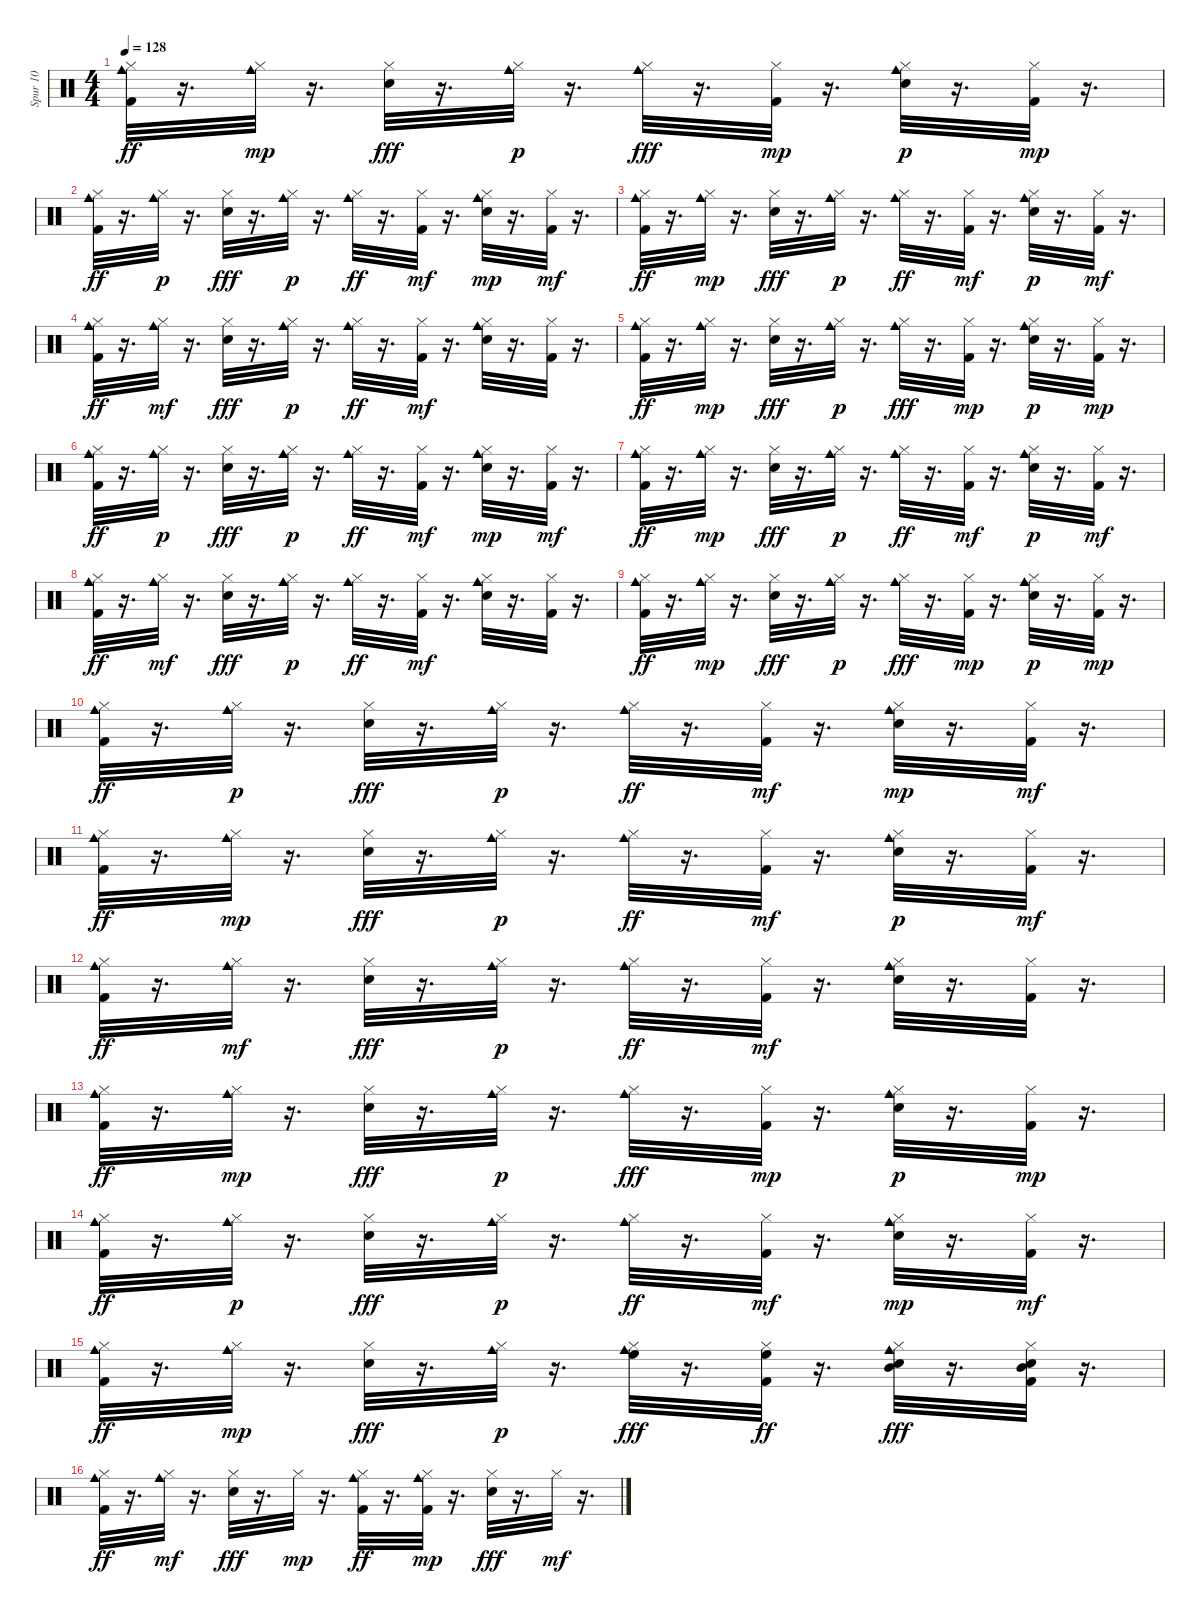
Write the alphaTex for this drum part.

\track ("Spur 10" "Spur 10") {instrument percussion}
\staff {score}
\articulation defaults
\ts (4 4)
\tempo 128
\clef neutral
\ks c
("Kick (hit) 2" "Hi-Hat (closed)" "Cowbell medium (hit)").32{dy ff} r.16{d} ("Hi-Hat (closed)" "Cowbell medium (hit)").32{dy mp} r.16{d} ("Electric Snare (hit)" "Hi-Hat (closed)").32{dy fff} r.16{d} ("Hi-Hat (closed)" "Cowbell medium (hit)").32{dy p} r.16{d} ("Hi-Hat (closed)" "Cowbell medium (hit)").32{dy fff} r.16{d} ("Kick (hit) 2" "Hi-Hat (closed)").32{dy mp} r.16{d} ("Electric Snare (hit)" "Hi-Hat (closed)" "Cowbell medium (hit)").32{dy p} r.16{d} ("Kick (hit) 2" "Hi-Hat (closed)").32{dy mp} r.16{d} |
("Kick (hit) 2" "Hi-Hat (closed)" "Cowbell medium (hit)").32{dy ff} r.16{d} ("Hi-Hat (closed)" "Cowbell medium (hit)").32{dy p} r.16{d} ("Electric Snare (hit)" "Hi-Hat (closed)").32{dy fff} r.16{d} ("Hi-Hat (closed)" "Cowbell medium (hit)").32{dy p} r.16{d} ("Hi-Hat (closed)" "Cowbell medium (hit)").32{dy ff} r.16{d} ("Kick (hit) 2" "Hi-Hat (closed)").32{dy mf} r.16{d} ("Electric Snare (hit)" "Hi-Hat (closed)" "Cowbell medium (hit)").32{dy mp} r.16{d} ("Kick (hit) 2" "Hi-Hat (closed)").32{dy mf} r.16{d} |
("Kick (hit) 2" "Hi-Hat (closed)" "Cowbell medium (hit)").32{dy ff} r.16{d} ("Hi-Hat (closed)" "Cowbell medium (hit)").32{dy mp} r.16{d} ("Electric Snare (hit)" "Hi-Hat (closed)").32{dy fff} r.16{d} ("Hi-Hat (closed)" "Cowbell medium (hit)").32{dy p} r.16{d} ("Hi-Hat (closed)" "Cowbell medium (hit)").32{dy ff} r.16{d} ("Kick (hit) 2" "Hi-Hat (closed)").32{dy mf} r.16{d} ("Electric Snare (hit)" "Hi-Hat (closed)" "Cowbell medium (hit)").32{dy p} r.16{d} ("Kick (hit) 2" "Hi-Hat (closed)").32{dy mf} r.16{d} |
("Kick (hit) 2" "Hi-Hat (closed)" "Cowbell medium (hit)").32{dy ff} r.16{d} ("Hi-Hat (closed)" "Cowbell medium (hit)").32{dy mf} r.16{d} ("Electric Snare (hit)" "Hi-Hat (closed)").32{dy fff} r.16{d} ("Hi-Hat (closed)" "Cowbell medium (hit)").32{dy p} r.16{d} ("Hi-Hat (closed)" "Cowbell medium (hit)").32{dy ff} r.16{d} ("Kick (hit) 2" "Hi-Hat (closed)").32{dy mf} r.16{d} ("Electric Snare (hit)" "Hi-Hat (closed)" "Cowbell medium (hit)").32 r.16{d} ("Kick (hit) 2" "Hi-Hat (closed)").32 r.16{d} |
("Kick (hit) 2" "Hi-Hat (closed)" "Cowbell medium (hit)").32{dy ff} r.16{d} ("Hi-Hat (closed)" "Cowbell medium (hit)").32{dy mp} r.16{d} ("Electric Snare (hit)" "Hi-Hat (closed)").32{dy fff} r.16{d} ("Hi-Hat (closed)" "Cowbell medium (hit)").32{dy p} r.16{d} ("Hi-Hat (closed)" "Cowbell medium (hit)").32{dy fff} r.16{d} ("Kick (hit) 2" "Hi-Hat (closed)").32{dy mp} r.16{d} ("Electric Snare (hit)" "Hi-Hat (closed)" "Cowbell medium (hit)").32{dy p} r.16{d} ("Kick (hit) 2" "Hi-Hat (closed)").32{dy mp} r.16{d} |
("Kick (hit) 2" "Hi-Hat (closed)" "Cowbell medium (hit)").32{dy ff} r.16{d} ("Hi-Hat (closed)" "Cowbell medium (hit)").32{dy p} r.16{d} ("Electric Snare (hit)" "Hi-Hat (closed)").32{dy fff} r.16{d} ("Hi-Hat (closed)" "Cowbell medium (hit)").32{dy p} r.16{d} ("Hi-Hat (closed)" "Cowbell medium (hit)").32{dy ff} r.16{d} ("Kick (hit) 2" "Hi-Hat (closed)").32{dy mf} r.16{d} ("Electric Snare (hit)" "Hi-Hat (closed)" "Cowbell medium (hit)").32{dy mp} r.16{d} ("Kick (hit) 2" "Hi-Hat (closed)").32{dy mf} r.16{d} |
("Kick (hit) 2" "Hi-Hat (closed)" "Cowbell medium (hit)").32{dy ff} r.16{d} ("Hi-Hat (closed)" "Cowbell medium (hit)").32{dy mp} r.16{d} ("Electric Snare (hit)" "Hi-Hat (closed)").32{dy fff} r.16{d} ("Hi-Hat (closed)" "Cowbell medium (hit)").32{dy p} r.16{d} ("Hi-Hat (closed)" "Cowbell medium (hit)").32{dy ff} r.16{d} ("Kick (hit) 2" "Hi-Hat (closed)").32{dy mf} r.16{d} ("Electric Snare (hit)" "Hi-Hat (closed)" "Cowbell medium (hit)").32{dy p} r.16{d} ("Kick (hit) 2" "Hi-Hat (closed)").32{dy mf} r.16{d} |
("Kick (hit) 2" "Hi-Hat (closed)" "Cowbell medium (hit)").32{dy ff} r.16{d} ("Hi-Hat (closed)" "Cowbell medium (hit)").32{dy mf} r.16{d} ("Electric Snare (hit)" "Hi-Hat (closed)").32{dy fff} r.16{d} ("Hi-Hat (closed)" "Cowbell medium (hit)").32{dy p} r.16{d} ("Hi-Hat (closed)" "Cowbell medium (hit)").32{dy ff} r.16{d} ("Kick (hit) 2" "Hi-Hat (closed)").32{dy mf} r.16{d} ("Electric Snare (hit)" "Hi-Hat (closed)" "Cowbell medium (hit)").32 r.16{d} ("Kick (hit) 2" "Hi-Hat (closed)").32 r.16{d} |
("Kick (hit) 2" "Hi-Hat (closed)" "Cowbell medium (hit)").32{dy ff} r.16{d} ("Hi-Hat (closed)" "Cowbell medium (hit)").32{dy mp} r.16{d} ("Electric Snare (hit)" "Hi-Hat (closed)").32{dy fff} r.16{d} ("Hi-Hat (closed)" "Cowbell medium (hit)").32{dy p} r.16{d} ("Hi-Hat (closed)" "Cowbell medium (hit)").32{dy fff} r.16{d} ("Kick (hit) 2" "Hi-Hat (closed)").32{dy mp} r.16{d} ("Electric Snare (hit)" "Hi-Hat (closed)" "Cowbell medium (hit)").32{dy p} r.16{d} ("Kick (hit) 2" "Hi-Hat (closed)").32{dy mp} r.16{d} |
("Kick (hit) 2" "Hi-Hat (closed)" "Cowbell medium (hit)").32{dy ff} r.16{d} ("Hi-Hat (closed)" "Cowbell medium (hit)").32{dy p} r.16{d} ("Electric Snare (hit)" "Hi-Hat (closed)").32{dy fff} r.16{d} ("Hi-Hat (closed)" "Cowbell medium (hit)").32{dy p} r.16{d} ("Hi-Hat (closed)" "Cowbell medium (hit)").32{dy ff} r.16{d} ("Kick (hit) 2" "Hi-Hat (closed)").32{dy mf} r.16{d} ("Electric Snare (hit)" "Hi-Hat (closed)" "Cowbell medium (hit)").32{dy mp} r.16{d} ("Kick (hit) 2" "Hi-Hat (closed)").32{dy mf} r.16{d} |
("Kick (hit) 2" "Hi-Hat (closed)" "Cowbell medium (hit)").32{dy ff} r.16{d} ("Hi-Hat (closed)" "Cowbell medium (hit)").32{dy mp} r.16{d} ("Electric Snare (hit)" "Hi-Hat (closed)").32{dy fff} r.16{d} ("Hi-Hat (closed)" "Cowbell medium (hit)").32{dy p} r.16{d} ("Hi-Hat (closed)" "Cowbell medium (hit)").32{dy ff} r.16{d} ("Kick (hit) 2" "Hi-Hat (closed)").32{dy mf} r.16{d} ("Electric Snare (hit)" "Hi-Hat (closed)" "Cowbell medium (hit)").32{dy p} r.16{d} ("Kick (hit) 2" "Hi-Hat (closed)").32{dy mf} r.16{d} |
("Kick (hit) 2" "Hi-Hat (closed)" "Cowbell medium (hit)").32{dy ff} r.16{d} ("Hi-Hat (closed)" "Cowbell medium (hit)").32{dy mf} r.16{d} ("Electric Snare (hit)" "Hi-Hat (closed)").32{dy fff} r.16{d} ("Hi-Hat (closed)" "Cowbell medium (hit)").32{dy p} r.16{d} ("Hi-Hat (closed)" "Cowbell medium (hit)").32{dy ff} r.16{d} ("Kick (hit) 2" "Hi-Hat (closed)").32{dy mf} r.16{d} ("Electric Snare (hit)" "Hi-Hat (closed)" "Cowbell medium (hit)").32 r.16{d} ("Kick (hit) 2" "Hi-Hat (closed)").32 r.16{d} |
("Kick (hit) 2" "Hi-Hat (closed)" "Cowbell medium (hit)").32{dy ff} r.16{d} ("Hi-Hat (closed)" "Cowbell medium (hit)").32{dy mp} r.16{d} ("Electric Snare (hit)" "Hi-Hat (closed)").32{dy fff} r.16{d} ("Hi-Hat (closed)" "Cowbell medium (hit)").32{dy p} r.16{d} ("Hi-Hat (closed)" "Cowbell medium (hit)").32{dy fff} r.16{d} ("Kick (hit) 2" "Hi-Hat (closed)").32{dy mp} r.16{d} ("Electric Snare (hit)" "Hi-Hat (closed)" "Cowbell medium (hit)").32{dy p} r.16{d} ("Kick (hit) 2" "Hi-Hat (closed)").32{dy mp} r.16{d} |
("Kick (hit) 2" "Hi-Hat (closed)" "Cowbell medium (hit)").32{dy ff} r.16{d} ("Hi-Hat (closed)" "Cowbell medium (hit)").32{dy p} r.16{d} ("Electric Snare (hit)" "Hi-Hat (closed)").32{dy fff} r.16{d} ("Hi-Hat (closed)" "Cowbell medium (hit)").32{dy p} r.16{d} ("Hi-Hat (closed)" "Cowbell medium (hit)").32{dy ff} r.16{d} ("Kick (hit) 2" "Hi-Hat (closed)").32{dy mf} r.16{d} ("Electric Snare (hit)" "Hi-Hat (closed)" "Cowbell medium (hit)").32{dy mp} r.16{d} ("Kick (hit) 2" "Hi-Hat (closed)").32{dy mf} r.16{d} |
("Kick (hit) 2" "Hi-Hat (closed)" "Cowbell medium (hit)").32{dy ff} r.16{d} ("Hi-Hat (closed)" "Cowbell medium (hit)").32{dy mp} r.16{d} ("Electric Snare (hit)" "Hi-Hat (closed)").32{dy fff} r.16{d} ("Hi-Hat (closed)" "Cowbell medium (hit)").32{dy p} r.16{d} ("Hi-Hat (closed)" "Cowbell medium (hit)" "High Floor Tom (hit)").32{dy fff} r.16{d} ("Kick (hit) 2" "Hi-Hat (closed)" "High Floor Tom (hit)").32{dy ff} r.16{d} ("Electric Snare (hit)" "Hi-Hat (closed)" "Cowbell medium (hit)" "Mid Tom (hit)").32{dy fff} r.16{d} ("Kick (hit) 2" "Hi-Hat (closed)" "Electric Snare (hit)" "Mid Tom (hit)").32 r.16{d} |
("Kick (hit) 2" "Hi-Hat (closed)" "Cowbell medium (hit)").32{dy ff} r.16{d} ("Hi-Hat (closed)" "Cowbell medium (hit)").32{dy mf} r.16{d} ("Electric Snare (hit)" "Hi-Hat (closed)").32{dy fff} r.16{d} "Hi-Hat (closed)".32{dy mp} r.16{d} ("Kick (hit) 2" "Hi-Hat (closed)" "Cowbell medium (hit)").32{dy ff} r.16{d} ("Kick (hit) 2" "Hi-Hat (closed)" "Cowbell medium (hit)").32{dy mp} r.16{d} ("Electric Snare (hit)" "Hi-Hat (closed)").32{dy fff} r.16{d} "Hi-Hat (closed)".32{dy mf} r.16{d}
